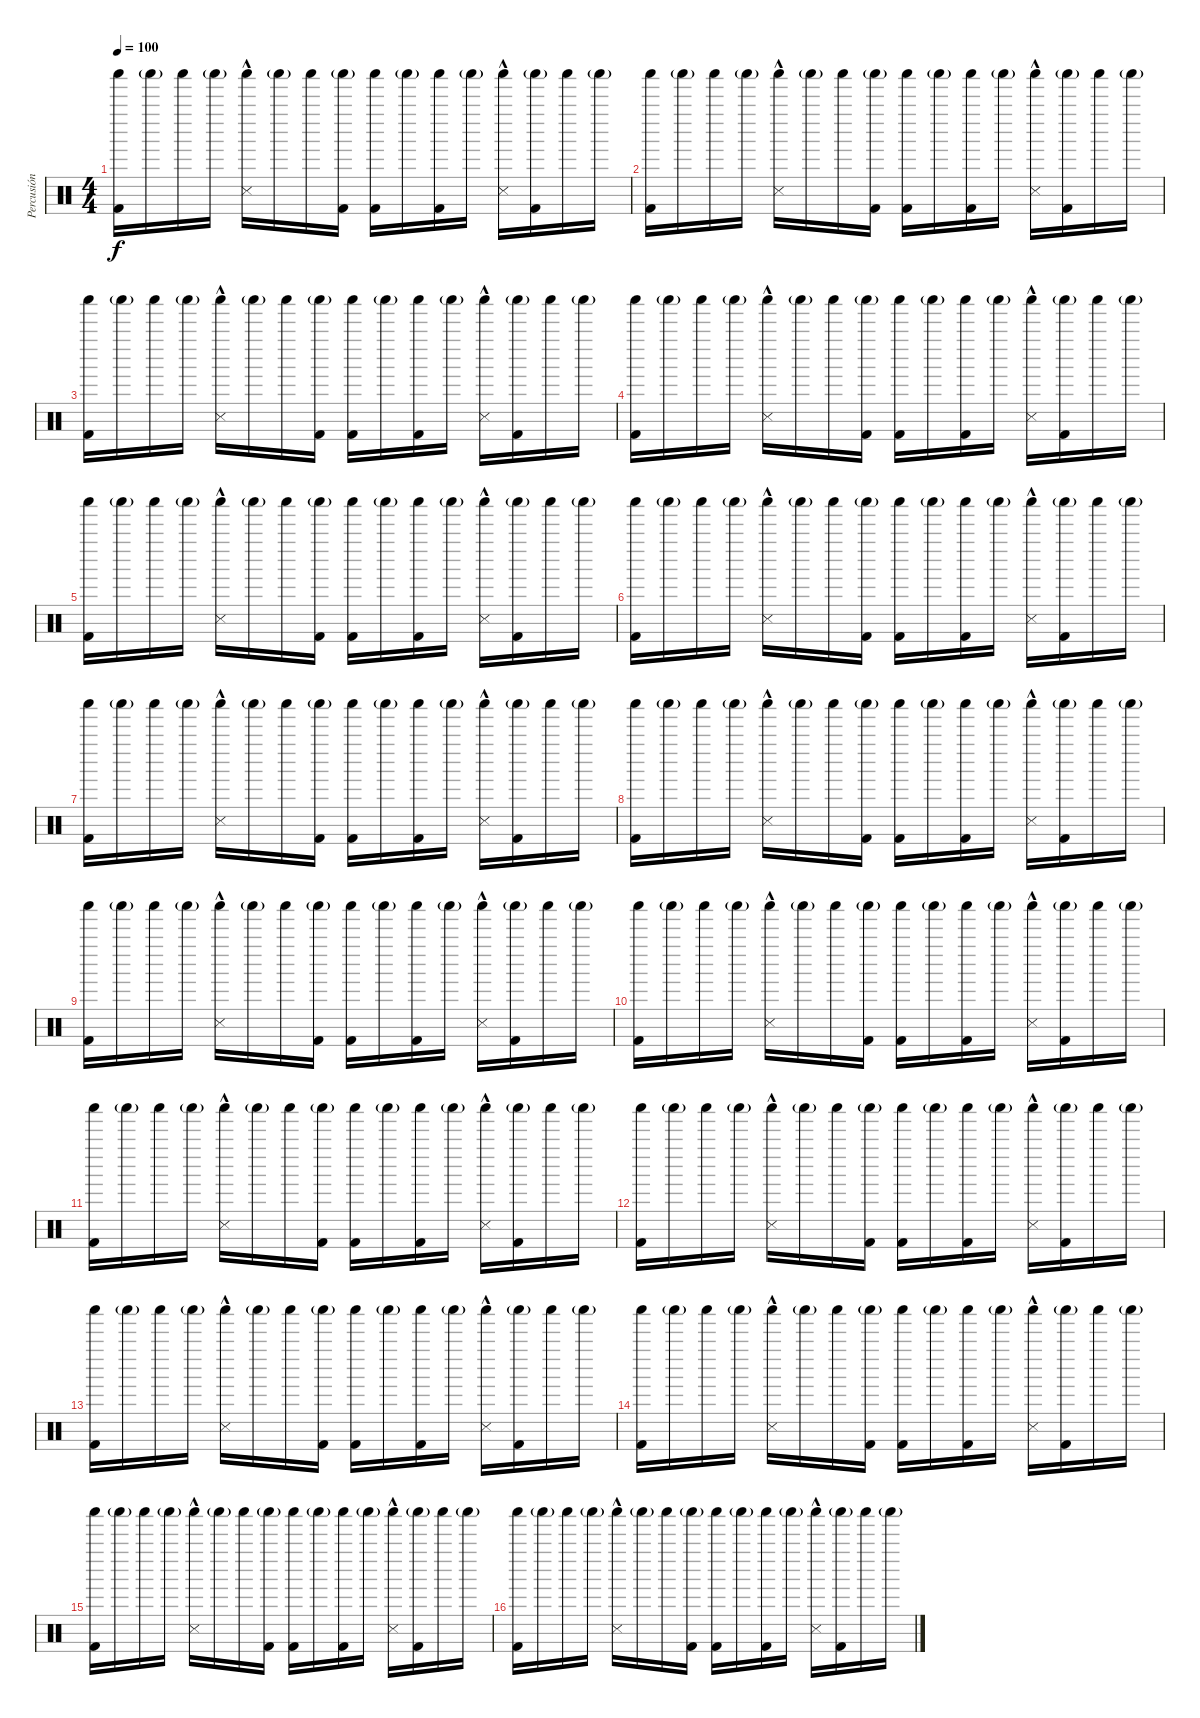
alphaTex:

\track ("Percusión" "Percusión") {instrument percussion}
\staff {score}
\articulation defaults
\ts (4 4)
\tempo 100
\clef neutral
\ks c
("Shaker (hit)" "Kick (hit) 2").16{dy f} "Shaker (hit)"{g}.16 "Shaker (hit)".16 "Shaker (hit)"{g}.16 ("Shaker (hit)" "Metronome (hit)"{hac}).16 "Shaker (hit)"{g}.16 "Shaker (hit)".16 ("Shaker (hit)"{g} "Kick (hit) 2").16 ("Shaker (hit)" "Kick (hit) 2").16 "Shaker (hit)"{g}.16 ("Shaker (hit)" "Kick (hit) 2").16 "Shaker (hit)"{g}.16 ("Shaker (hit)" "Metronome (hit)"{hac}).16 ("Shaker (hit)"{g} "Kick (hit) 2").16 "Shaker (hit)".16 "Shaker (hit)"{g}.16 |
("Shaker (hit)" "Kick (hit) 2").16 "Shaker (hit)"{g}.16 "Shaker (hit)".16 "Shaker (hit)"{g}.16 ("Shaker (hit)" "Metronome (hit)"{hac}).16 "Shaker (hit)"{g}.16 "Shaker (hit)".16 ("Shaker (hit)"{g} "Kick (hit) 2").16 ("Shaker (hit)" "Kick (hit) 2").16 "Shaker (hit)"{g}.16 ("Shaker (hit)" "Kick (hit) 2").16 "Shaker (hit)"{g}.16 ("Shaker (hit)" "Metronome (hit)"{hac}).16 ("Shaker (hit)"{g} "Kick (hit) 2").16 "Shaker (hit)".16 "Shaker (hit)"{g}.16 |
("Shaker (hit)" "Kick (hit) 2").16 "Shaker (hit)"{g}.16 "Shaker (hit)".16 "Shaker (hit)"{g}.16 ("Shaker (hit)" "Metronome (hit)"{hac}).16 "Shaker (hit)"{g}.16 "Shaker (hit)".16 ("Shaker (hit)"{g} "Kick (hit) 2").16 ("Shaker (hit)" "Kick (hit) 2").16 "Shaker (hit)"{g}.16 ("Shaker (hit)" "Kick (hit) 2").16 "Shaker (hit)"{g}.16 ("Shaker (hit)" "Metronome (hit)"{hac}).16 ("Shaker (hit)"{g} "Kick (hit) 2").16 "Shaker (hit)".16 "Shaker (hit)"{g}.16 |
("Shaker (hit)" "Kick (hit) 2").16 "Shaker (hit)"{g}.16 "Shaker (hit)".16 "Shaker (hit)"{g}.16 ("Shaker (hit)" "Metronome (hit)"{hac}).16 "Shaker (hit)"{g}.16 "Shaker (hit)".16 ("Shaker (hit)"{g} "Kick (hit) 2").16 ("Shaker (hit)" "Kick (hit) 2").16 "Shaker (hit)"{g}.16 ("Shaker (hit)" "Kick (hit) 2").16 "Shaker (hit)"{g}.16 ("Shaker (hit)" "Metronome (hit)"{hac}).16 ("Shaker (hit)"{g} "Kick (hit) 2").16 "Shaker (hit)".16 "Shaker (hit)"{g}.16 |
("Shaker (hit)" "Kick (hit) 2").16 "Shaker (hit)"{g}.16 "Shaker (hit)".16 "Shaker (hit)"{g}.16 ("Shaker (hit)" "Metronome (hit)"{hac}).16 "Shaker (hit)"{g}.16 "Shaker (hit)".16 ("Shaker (hit)"{g} "Kick (hit) 2").16 ("Shaker (hit)" "Kick (hit) 2").16 "Shaker (hit)"{g}.16 ("Shaker (hit)" "Kick (hit) 2").16 "Shaker (hit)"{g}.16 ("Shaker (hit)" "Metronome (hit)"{hac}).16 ("Shaker (hit)"{g} "Kick (hit) 2").16 "Shaker (hit)".16 "Shaker (hit)"{g}.16 |
("Shaker (hit)" "Kick (hit) 2").16 "Shaker (hit)"{g}.16 "Shaker (hit)".16 "Shaker (hit)"{g}.16 ("Shaker (hit)" "Metronome (hit)"{hac}).16 "Shaker (hit)"{g}.16 "Shaker (hit)".16 ("Shaker (hit)"{g} "Kick (hit) 2").16 ("Shaker (hit)" "Kick (hit) 2").16 "Shaker (hit)"{g}.16 ("Shaker (hit)" "Kick (hit) 2").16 "Shaker (hit)"{g}.16 ("Shaker (hit)" "Metronome (hit)"{hac}).16 ("Shaker (hit)"{g} "Kick (hit) 2").16 "Shaker (hit)".16 "Shaker (hit)"{g}.16 |
("Shaker (hit)" "Kick (hit) 2").16 "Shaker (hit)"{g}.16 "Shaker (hit)".16 "Shaker (hit)"{g}.16 ("Shaker (hit)" "Metronome (hit)"{hac}).16 "Shaker (hit)"{g}.16 "Shaker (hit)".16 ("Shaker (hit)"{g} "Kick (hit) 2").16 ("Shaker (hit)" "Kick (hit) 2").16 "Shaker (hit)"{g}.16 ("Shaker (hit)" "Kick (hit) 2").16 "Shaker (hit)"{g}.16 ("Shaker (hit)" "Metronome (hit)"{hac}).16 ("Shaker (hit)"{g} "Kick (hit) 2").16 "Shaker (hit)".16 "Shaker (hit)"{g}.16 |
("Shaker (hit)" "Kick (hit) 2").16 "Shaker (hit)"{g}.16 "Shaker (hit)".16 "Shaker (hit)"{g}.16 ("Shaker (hit)" "Metronome (hit)"{hac}).16 "Shaker (hit)"{g}.16 "Shaker (hit)".16 ("Shaker (hit)"{g} "Kick (hit) 2").16 ("Shaker (hit)" "Kick (hit) 2").16 "Shaker (hit)"{g}.16 ("Shaker (hit)" "Kick (hit) 2").16 "Shaker (hit)"{g}.16 ("Shaker (hit)" "Metronome (hit)"{hac}).16 ("Shaker (hit)"{g} "Kick (hit) 2").16 "Shaker (hit)".16 "Shaker (hit)"{g}.16 |
("Shaker (hit)" "Kick (hit) 2").16 "Shaker (hit)"{g}.16 "Shaker (hit)".16 "Shaker (hit)"{g}.16 ("Shaker (hit)" "Metronome (hit)"{hac}).16 "Shaker (hit)"{g}.16 "Shaker (hit)".16 ("Shaker (hit)"{g} "Kick (hit) 2").16 ("Shaker (hit)" "Kick (hit) 2").16 "Shaker (hit)"{g}.16 ("Shaker (hit)" "Kick (hit) 2").16 "Shaker (hit)"{g}.16 ("Shaker (hit)" "Metronome (hit)"{hac}).16 ("Shaker (hit)"{g} "Kick (hit) 2").16 "Shaker (hit)".16 "Shaker (hit)"{g}.16 |
("Shaker (hit)" "Kick (hit) 2").16 "Shaker (hit)"{g}.16 "Shaker (hit)".16 "Shaker (hit)"{g}.16 ("Shaker (hit)" "Metronome (hit)"{hac}).16 "Shaker (hit)"{g}.16 "Shaker (hit)".16 ("Shaker (hit)"{g} "Kick (hit) 2").16 ("Shaker (hit)" "Kick (hit) 2").16 "Shaker (hit)"{g}.16 ("Shaker (hit)" "Kick (hit) 2").16 "Shaker (hit)"{g}.16 ("Shaker (hit)" "Metronome (hit)"{hac}).16 ("Shaker (hit)"{g} "Kick (hit) 2").16 "Shaker (hit)".16 "Shaker (hit)"{g}.16 |
("Shaker (hit)" "Kick (hit) 2").16 "Shaker (hit)"{g}.16 "Shaker (hit)".16 "Shaker (hit)"{g}.16 ("Shaker (hit)" "Metronome (hit)"{hac}).16 "Shaker (hit)"{g}.16 "Shaker (hit)".16 ("Shaker (hit)"{g} "Kick (hit) 2").16 ("Shaker (hit)" "Kick (hit) 2").16 "Shaker (hit)"{g}.16 ("Shaker (hit)" "Kick (hit) 2").16 "Shaker (hit)"{g}.16 ("Shaker (hit)" "Metronome (hit)"{hac}).16 ("Shaker (hit)"{g} "Kick (hit) 2").16 "Shaker (hit)".16 "Shaker (hit)"{g}.16 |
("Shaker (hit)" "Kick (hit) 2").16 "Shaker (hit)"{g}.16 "Shaker (hit)".16 "Shaker (hit)"{g}.16 ("Shaker (hit)" "Metronome (hit)"{hac}).16 "Shaker (hit)"{g}.16 "Shaker (hit)".16 ("Shaker (hit)"{g} "Kick (hit) 2").16 ("Shaker (hit)" "Kick (hit) 2").16 "Shaker (hit)"{g}.16 ("Shaker (hit)" "Kick (hit) 2").16 "Shaker (hit)"{g}.16 ("Shaker (hit)" "Metronome (hit)"{hac}).16 ("Shaker (hit)"{g} "Kick (hit) 2").16 "Shaker (hit)".16 "Shaker (hit)"{g}.16 |
("Shaker (hit)" "Kick (hit) 2").16 "Shaker (hit)"{g}.16 "Shaker (hit)".16 "Shaker (hit)"{g}.16 ("Shaker (hit)" "Metronome (hit)"{hac}).16 "Shaker (hit)"{g}.16 "Shaker (hit)".16 ("Shaker (hit)"{g} "Kick (hit) 2").16 ("Shaker (hit)" "Kick (hit) 2").16 "Shaker (hit)"{g}.16 ("Shaker (hit)" "Kick (hit) 2").16 "Shaker (hit)"{g}.16 ("Shaker (hit)" "Metronome (hit)"{hac}).16 ("Shaker (hit)"{g} "Kick (hit) 2").16 "Shaker (hit)".16 "Shaker (hit)"{g}.16 |
("Shaker (hit)" "Kick (hit) 2").16 "Shaker (hit)"{g}.16 "Shaker (hit)".16 "Shaker (hit)"{g}.16 ("Shaker (hit)" "Metronome (hit)"{hac}).16 "Shaker (hit)"{g}.16 "Shaker (hit)".16 ("Shaker (hit)"{g} "Kick (hit) 2").16 ("Shaker (hit)" "Kick (hit) 2").16 "Shaker (hit)"{g}.16 ("Shaker (hit)" "Kick (hit) 2").16 "Shaker (hit)"{g}.16 ("Shaker (hit)" "Metronome (hit)"{hac}).16 ("Shaker (hit)"{g} "Kick (hit) 2").16 "Shaker (hit)".16 "Shaker (hit)"{g}.16 |
("Shaker (hit)" "Kick (hit) 2").16 "Shaker (hit)"{g}.16 "Shaker (hit)".16 "Shaker (hit)"{g}.16 ("Shaker (hit)" "Metronome (hit)"{hac}).16 "Shaker (hit)"{g}.16 "Shaker (hit)".16 ("Shaker (hit)"{g} "Kick (hit) 2").16 ("Shaker (hit)" "Kick (hit) 2").16 "Shaker (hit)"{g}.16 ("Shaker (hit)" "Kick (hit) 2").16 "Shaker (hit)"{g}.16 ("Shaker (hit)" "Metronome (hit)"{hac}).16 ("Shaker (hit)"{g} "Kick (hit) 2").16 "Shaker (hit)".16 "Shaker (hit)"{g}.16 |
("Shaker (hit)" "Kick (hit) 2").16 "Shaker (hit)"{g}.16 "Shaker (hit)".16 "Shaker (hit)"{g}.16 ("Shaker (hit)" "Metronome (hit)"{hac}).16 "Shaker (hit)"{g}.16 "Shaker (hit)".16 ("Shaker (hit)"{g} "Kick (hit) 2").16 ("Shaker (hit)" "Kick (hit) 2").16 "Shaker (hit)"{g}.16 ("Shaker (hit)" "Kick (hit) 2").16 "Shaker (hit)"{g}.16 ("Shaker (hit)" "Metronome (hit)"{hac}).16 ("Shaker (hit)"{g} "Kick (hit) 2").16 "Shaker (hit)".16 "Shaker (hit)"{g}.16
